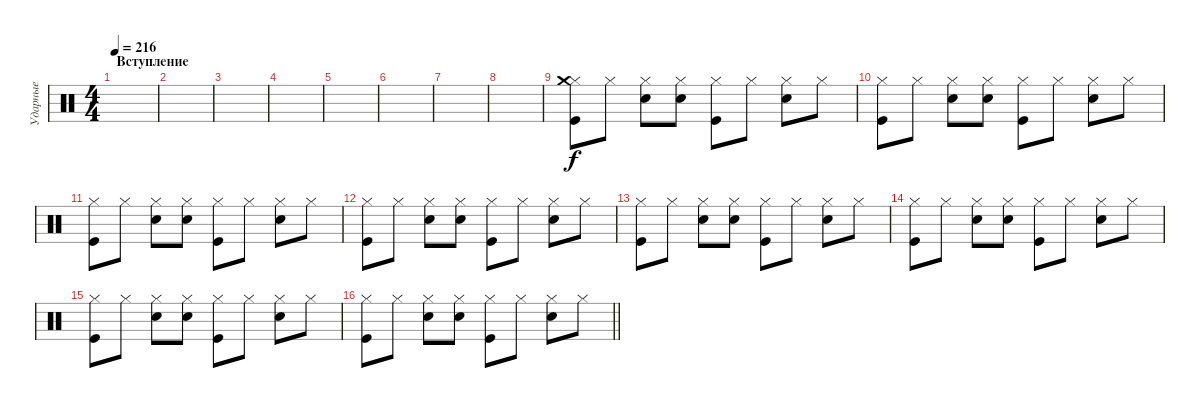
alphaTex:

\track ("Ударные" "Ударные") {instrument percussion}
\staff {score}
\articulation defaults
\ts (4 4)
\section ("" "Вступление")
\tempo 216
\clef neutral
\ks c
|
|
|
|
|
|
|
|
("Hi-Hat (closed)" "Kick (hit)" "Crash medium (hit)").8 "Hi-Hat (closed)".8 ("Hi-Hat (closed)" "Snare (hit) 2").8 ("Hi-Hat (closed)" "Snare (hit) 2").8 ("Hi-Hat (closed)" "Kick (hit)").8 "Hi-Hat (closed)".8 ("Hi-Hat (closed)" "Snare (hit) 2").8 "Hi-Hat (closed)".8 |
("Hi-Hat (closed)" "Kick (hit)").8 "Hi-Hat (closed)".8 ("Hi-Hat (closed)" "Snare (hit) 2").8 ("Hi-Hat (closed)" "Snare (hit) 2").8 ("Hi-Hat (closed)" "Kick (hit)").8 "Hi-Hat (closed)".8 ("Hi-Hat (closed)" "Snare (hit) 2").8 "Hi-Hat (closed)".8 |
("Hi-Hat (closed)" "Kick (hit)").8 "Hi-Hat (closed)".8 ("Hi-Hat (closed)" "Snare (hit) 2").8 ("Hi-Hat (closed)" "Snare (hit) 2").8 ("Hi-Hat (closed)" "Kick (hit)").8 "Hi-Hat (closed)".8 ("Hi-Hat (closed)" "Snare (hit) 2").8 "Hi-Hat (closed)".8 |
("Hi-Hat (closed)" "Kick (hit)").8 "Hi-Hat (closed)".8 ("Hi-Hat (closed)" "Snare (hit) 2").8 ("Hi-Hat (closed)" "Snare (hit) 2").8 ("Hi-Hat (closed)" "Kick (hit)").8 "Hi-Hat (closed)".8 ("Hi-Hat (closed)" "Snare (hit) 2").8 "Hi-Hat (closed)".8 |
("Hi-Hat (closed)" "Kick (hit)").8 "Hi-Hat (closed)".8 ("Hi-Hat (closed)" "Snare (hit) 2").8 ("Hi-Hat (closed)" "Snare (hit) 2").8 ("Hi-Hat (closed)" "Kick (hit)").8 "Hi-Hat (closed)".8 ("Hi-Hat (closed)" "Snare (hit) 2").8 "Hi-Hat (closed)".8 |
("Hi-Hat (closed)" "Kick (hit)").8 "Hi-Hat (closed)".8 ("Hi-Hat (closed)" "Snare (hit) 2").8 ("Hi-Hat (closed)" "Snare (hit) 2").8 ("Hi-Hat (closed)" "Kick (hit)").8 "Hi-Hat (closed)".8 ("Hi-Hat (closed)" "Snare (hit) 2").8 "Hi-Hat (closed)".8 |
("Hi-Hat (closed)" "Kick (hit)").8 "Hi-Hat (closed)".8 ("Hi-Hat (closed)" "Snare (hit) 2").8 ("Hi-Hat (closed)" "Snare (hit) 2").8 ("Hi-Hat (closed)" "Kick (hit)").8 "Hi-Hat (closed)".8 ("Hi-Hat (closed)" "Snare (hit) 2").8 "Hi-Hat (closed)".8 |
\barLineRight lightlight
("Hi-Hat (closed)" "Kick (hit)").8 "Hi-Hat (closed)".8 ("Hi-Hat (closed)" "Snare (hit) 2").8 ("Hi-Hat (closed)" "Snare (hit) 2").8 ("Hi-Hat (closed)" "Kick (hit)").8 "Hi-Hat (closed)".8 ("Hi-Hat (closed)" "Snare (hit) 2").8 "Hi-Hat (closed)".8
